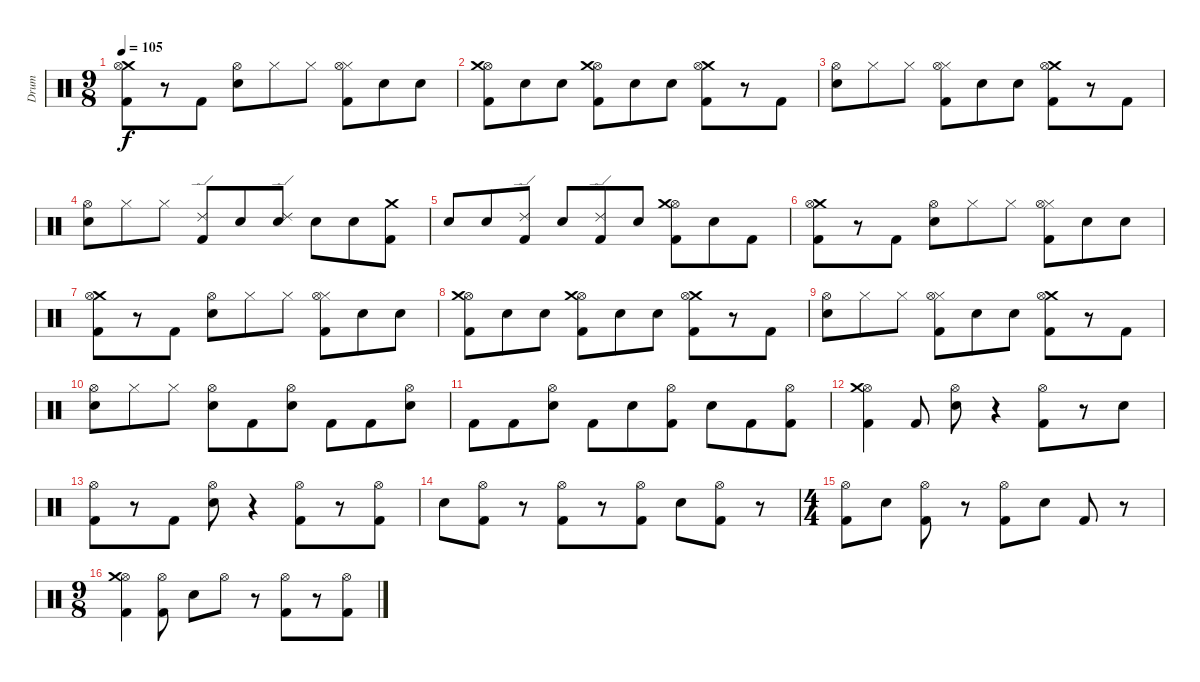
\track ("Drum" "Drum") {instrument percussion}
\staff {score}
\articulation defaults
\ts (9 8)
\tempo 105
\clef neutral
\ks c
("Crash medium (hit)" "Hi-Hat (open)" "Kick (hit) 2").8{dy f} r.8 "Kick (hit) 2".8 ("Hi-Hat (open)" "Electric Snare (hit)").8 "Hi-Hat (closed)".8 "Hi-Hat (closed)".8 ("Hi-Hat (closed)" "Hi-Hat (open)" "Kick (hit) 2").8 "Electric Snare (hit)".8 "Electric Snare (hit)".8 |
("Hi-Hat (open)" "Crash medium (hit)" "Kick (hit) 2").8 "Electric Snare (hit)".8 "Electric Snare (hit)".8 ("Hi-Hat (open)" "Crash medium (hit)" "Kick (hit) 2").8 "Electric Snare (hit)".8 "Electric Snare (hit)".8 ("Crash medium (hit)" "Hi-Hat (open)" "Kick (hit) 2").8 r.8 "Kick (hit) 2".8 |
("Hi-Hat (open)" "Electric Snare (hit)").8 "Hi-Hat (closed)".8 "Hi-Hat (closed)".8 ("Hi-Hat (closed)" "Hi-Hat (open)" "Kick (hit) 2").8 "Electric Snare (hit)".8 "Electric Snare (hit)".8 ("Crash medium (hit)" "Hi-Hat (open)" "Kick (hit) 2").8 r.8 "Kick (hit) 2".8 |
("Hi-Hat (open)" "Electric Snare (hit)").8 "Hi-Hat (closed)".8 "Hi-Hat (closed)".8 ("Ride (edge) 2" "Kick (hit) 2").8 "Electric Snare (hit)".8 ("Electric Snare (hit)" "Ride (edge) 2").8 "Electric Snare (hit)".8 "Electric Snare (hit)".8 ("Crash medium (hit)" "Kick (hit) 2").8 |
"Electric Snare (hit)".8 "Electric Snare (hit)".8 ("Kick (hit) 2" "Ride (edge) 2").8 "Electric Snare (hit)".8 ("Kick (hit) 2" "Ride (edge) 2").8 "Electric Snare (hit)".8 ("Kick (hit) 2" "Hi-Hat (open)" "Crash medium (hit)").8 "Electric Snare (hit)".8 "Kick (hit) 2".8 |
("Crash medium (hit)" "Hi-Hat (open)" "Kick (hit) 2").8 r.8 "Kick (hit) 2".8 ("Hi-Hat (open)" "Electric Snare (hit)").8 "Hi-Hat (closed)".8 "Hi-Hat (closed)".8 ("Hi-Hat (closed)" "Hi-Hat (open)" "Kick (hit) 2").8 "Electric Snare (hit)".8 "Electric Snare (hit)".8 |
("Crash medium (hit)" "Hi-Hat (open)" "Kick (hit) 2").8 r.8 "Kick (hit) 2".8 ("Hi-Hat (open)" "Electric Snare (hit)").8 "Hi-Hat (closed)".8 "Hi-Hat (closed)".8 ("Hi-Hat (closed)" "Hi-Hat (open)" "Kick (hit) 2").8 "Electric Snare (hit)".8 "Electric Snare (hit)".8 |
("Hi-Hat (open)" "Crash medium (hit)" "Kick (hit) 2").8 "Electric Snare (hit)".8 "Electric Snare (hit)".8 ("Hi-Hat (open)" "Crash medium (hit)" "Kick (hit) 2").8 "Electric Snare (hit)".8 "Electric Snare (hit)".8 ("Crash medium (hit)" "Hi-Hat (open)" "Kick (hit) 2").8 r.8 "Kick (hit) 2".8 |
("Hi-Hat (open)" "Electric Snare (hit)").8 "Hi-Hat (closed)".8 "Hi-Hat (closed)".8 ("Hi-Hat (closed)" "Hi-Hat (open)" "Kick (hit) 2").8 "Electric Snare (hit)".8 "Electric Snare (hit)".8 ("Crash medium (hit)" "Hi-Hat (open)" "Kick (hit) 2").8 r.8 "Kick (hit) 2".8 |
("Hi-Hat (open)" "Electric Snare (hit)").8 "Hi-Hat (closed)".8 "Hi-Hat (closed)".8 ("Hi-Hat (open)" "Electric Snare (hit)").8 "Kick (hit) 2".8 ("Hi-Hat (open)" "Electric Snare (hit)").8 "Kick (hit) 2".8 "Kick (hit) 2".8 ("Hi-Hat (open)" "Electric Snare (hit)").8 |
"Kick (hit) 2".8 "Kick (hit) 2".8 ("Hi-Hat (open)" "Electric Snare (hit)").8 "Kick (hit) 2".8 "Electric Snare (hit)".8 ("Hi-Hat (open)" "Kick (hit) 2").8 "Electric Snare (hit)".8 "Kick (hit) 2".8 ("Hi-Hat (open)" "Kick (hit) 2").8 |
("Hi-Hat (open)" "Crash medium (hit)" "Kick (hit) 2").4 "Kick (hit) 2".8 ("Hi-Hat (open)" "Electric Snare (hit)").8 r.4 ("Hi-Hat (open)" "Kick (hit) 2").8 r.8 "Electric Snare (hit)".8 |
("Hi-Hat (open)" "Kick (hit) 2").8 r.8 "Kick (hit) 2".8 ("Hi-Hat (open)" "Electric Snare (hit)").8 r.4 ("Hi-Hat (open)" "Kick (hit) 2").8 r.8 ("Hi-Hat (open)" "Kick (hit) 2").8 |
"Electric Snare (hit)".8 ("Hi-Hat (open)" "Kick (hit) 2").8 r.8 ("Hi-Hat (open)" "Kick (hit) 2").8 r.8 ("Hi-Hat (open)" "Kick (hit) 2").8 "Electric Snare (hit)".8 ("Hi-Hat (open)" "Kick (hit) 2").8 r.8 |
\ts (4 4)
("Hi-Hat (open)" "Kick (hit) 2").8 "Electric Snare (hit)".8 ("Hi-Hat (open)" "Kick (hit) 2").8 r.8 ("Hi-Hat (open)" "Kick (hit) 2").8 "Electric Snare (hit)".8 "Kick (hit) 2".8 r.8 |
\ts (9 8)
("Hi-Hat (open)" "Crash medium (hit)" "Kick (hit) 2").4 ("Hi-Hat (open)" "Kick (hit) 2").8 "Electric Snare (hit)".8 "Hi-Hat (open)".8 r.8 ("Hi-Hat (open)" "Kick (hit) 2").8 r.8 ("Hi-Hat (open)" "Kick (hit) 2").8
